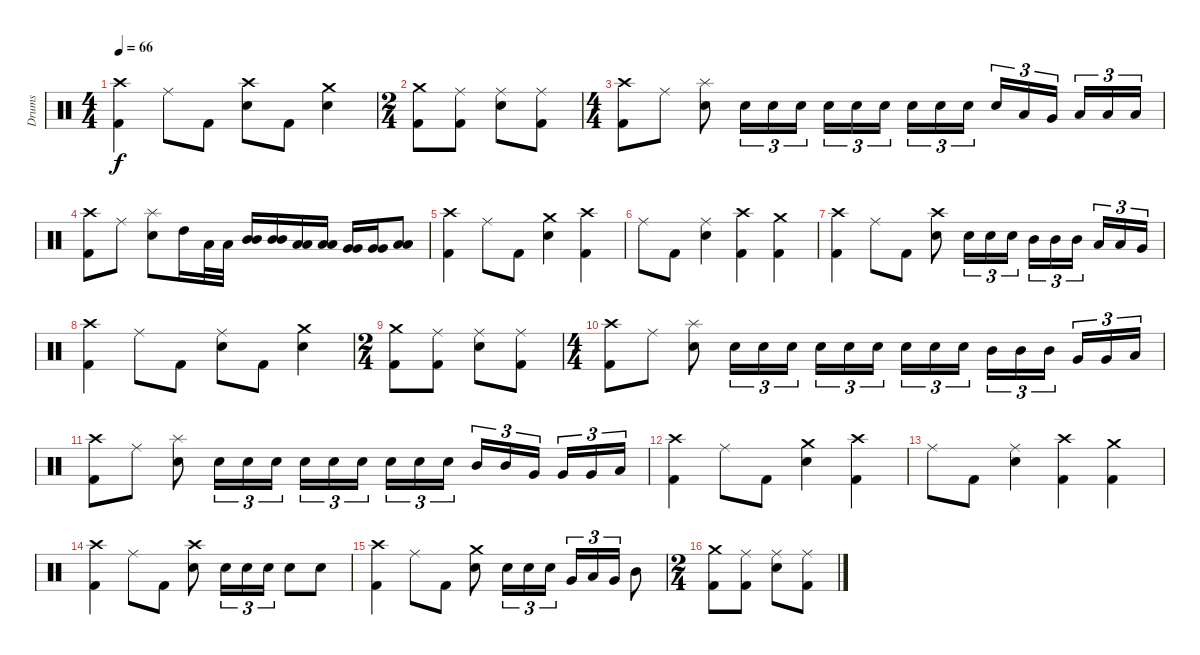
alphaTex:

\track ("Drums" "Drums") {instrument percussion}
\staff {score}
\articulation defaults
\ts (4 4)
\tempo 66
\clef neutral
\ks c
("Crash high (hit)" "Kick (hit) 2").4{dy f} "Ride (middle)".8 "Kick (hit) 2".8 ("Crash high (hit)" "Electric Snare (hit)").8 "Kick (hit) 2".8 ("Crash medium (hit)" "Electric Snare (hit)").4 |
\ts (2 4)
("Crash medium (hit)" "Kick (hit) 2").8 ("Ride (middle)" "Kick (hit) 2").8 ("Ride (middle)" "Electric Snare (hit)").8 ("Ride (middle)" "Kick (hit) 2").8 |
\ts (4 4)
("Crash high (hit)" "Kick (hit) 2").8 "Ride (middle)".8 ("Splash (hit)" "Electric Snare (hit)").8 "Electric Snare (hit)".16{tu (3 2)} "Electric Snare (hit)".16{tu (3 2)} "Electric Snare (hit)".16{tu (3 2)} "Electric Snare (hit)".16{tu (3 2)} "Electric Snare (hit)".16{tu (3 2)} "Electric Snare (hit)".16{tu (3 2) beam splitsecondary} "Electric Snare (hit)".16{tu (3 2)} "Electric Snare (hit)".16{tu (3 2)} "Electric Snare (hit)".16{tu (3 2)} "Electric Snare (hit)".16{tu (3 2)} "Low Tom (hit)".16{tu (3 2)} "Very Low Tom (hit)".16{tu (3 2) beam splitsecondary} "Low Floor Tom (hit)".16{tu (3 2)} "Low Floor Tom (hit)".16{tu (3 2)} "Low Floor Tom (hit)".16{tu (3 2)} |
("Crash high (hit)" "Kick (hit) 2").8 "Ride (middle)".8 ("Splash (hit)" "Electric Snare (hit)").8 "High Tom (hit)".16 "Low Tom (hit)".32 "Low Tom (hit)".32 ("Mid Tom (hit)" "Mid Tom (hit)").16 ("Mid Tom (hit)" "Mid Tom (hit)").16 ("Low Tom (hit)" "Low Tom (hit)").16 ("Low Tom (hit)" "Low Tom (hit)").16 ("Very Low Tom (hit)" "Very Low Tom (hit)").16 ("Very Low Tom (hit)" "Very Low Tom (hit)").16 ("Low Floor Tom (hit)" "Low Floor Tom (hit)").8 |
("Crash high (hit)" "Kick (hit) 2").4 "Ride (middle)".8 "Kick (hit) 2".8 ("Crash medium (hit)" "Electric Snare (hit)").4 ("Crash high (hit)" "Kick (hit) 2").4 |
"Ride (middle)".8 "Kick (hit) 2".8 ("Ride (middle)" "Electric Snare (hit)").4 ("Crash high (hit)" "Kick (hit) 2").4 ("Crash medium (hit)" "Kick (hit) 2").4 |
("Crash high (hit)" "Kick (hit) 2").4 "Ride (middle)".8 "Kick (hit) 2".8 ("Crash high (hit)" "Electric Snare (hit)").8 "Electric Snare (hit)".16{tu (3 2)} "Electric Snare (hit)".16{tu (3 2)} "Electric Snare (hit)".16{tu (3 2)} "Mid Tom (hit)".16{tu (3 2)} "Mid Tom (hit)".16{tu (3 2)} "Mid Tom (hit)".16{tu (3 2) beam splitsecondary} "Low Tom (hit)".16{tu (3 2)} "Low Tom (hit)".16{tu (3 2)} "Very Low Tom (hit)".16{tu (3 2)} |
("Crash high (hit)" "Kick (hit) 2").4 "Ride (middle)".8 "Kick (hit) 2".8 ("Ride (middle)" "Electric Snare (hit)").8 "Kick (hit) 2".8 ("Crash medium (hit)" "Electric Snare (hit)").4 |
\ts (2 4)
("Crash medium (hit)" "Kick (hit) 2").8 ("Ride (middle)" "Kick (hit) 2").8 ("Ride (middle)" "Electric Snare (hit)").8 ("Ride (middle)" "Kick (hit) 2").8 |
\ts (4 4)
("Crash high (hit)" "Kick (hit) 2").8 "Ride (middle)".8 ("Splash (hit)" "Electric Snare (hit)").8 "Electric Snare (hit)".16{tu (3 2)} "Electric Snare (hit)".16{tu (3 2)} "Electric Snare (hit)".16{tu (3 2)} "Electric Snare (hit)".16{tu (3 2)} "Electric Snare (hit)".16{tu (3 2)} "Electric Snare (hit)".16{tu (3 2) beam splitsecondary} "Electric Snare (hit)".16{tu (3 2)} "Electric Snare (hit)".16{tu (3 2)} "Electric Snare (hit)".16{tu (3 2)} "Mid Tom (hit)".16{tu (3 2)} "Mid Tom (hit)".16{tu (3 2)} "Mid Tom (hit)".16{tu (3 2) beam splitsecondary} "Very Low Tom (hit)".16{tu (3 2)} "Very Low Tom (hit)".16{tu (3 2)} "Low Floor Tom (hit)".16{tu (3 2)} |
("Crash high (hit)" "Kick (hit) 2").8 "Ride (middle)".8 ("Splash (hit)" "Electric Snare (hit)").8 "Electric Snare (hit)".16{tu (3 2)} "Electric Snare (hit)".16{tu (3 2)} "Electric Snare (hit)".16{tu (3 2)} "Electric Snare (hit)".16{tu (3 2)} "Electric Snare (hit)".16{tu (3 2)} "Electric Snare (hit)".16{tu (3 2) beam splitsecondary} "Electric Snare (hit)".16{tu (3 2)} "Electric Snare (hit)".16{tu (3 2)} "Electric Snare (hit)".16{tu (3 2)} "Mid Tom (hit)".16{tu (3 2)} "Mid Tom (hit)".16{tu (3 2)} "Very Low Tom (hit)".16{tu (3 2) beam splitsecondary} "Very Low Tom (hit)".16{tu (3 2)} "Very Low Tom (hit)".16{tu (3 2)} "Low Floor Tom (hit)".16{tu (3 2)} |
("Crash high (hit)" "Kick (hit) 2").4 "Ride (middle)".8 "Kick (hit) 2".8 ("Crash medium (hit)" "Electric Snare (hit)").4 ("Crash high (hit)" "Kick (hit) 2").4 |
"Ride (middle)".8 "Kick (hit) 2".8 ("Ride (middle)" "Electric Snare (hit)").4 ("Crash high (hit)" "Kick (hit) 2").4 ("Crash medium (hit)" "Kick (hit) 2").4 |
("Crash high (hit)" "Kick (hit) 2").4 "Ride (middle)".8 "Kick (hit) 2".8 ("Crash high (hit)" "Electric Snare (hit)").8 "Electric Snare (hit)".16{tu (3 2)} "Electric Snare (hit)".16{tu (3 2)} "Electric Snare (hit)".16{tu (3 2)} "Electric Snare (hit)".8 "Electric Snare (hit)".8 |
("Crash high (hit)" "Kick (hit) 2").4 "Ride (middle)".8 "Kick (hit) 2".8 ("Crash medium (hit)" "Electric Snare (hit)").8 "Electric Snare (hit)".16{tu (3 2)} "Electric Snare (hit)".16{tu (3 2)} "Electric Snare (hit)".16{tu (3 2)} "Very Low Tom (hit)".16{tu (3 2)} "Low Floor Tom (hit)".16{tu (3 2)} "Very Low Tom (hit)".16{tu (3 2)} "Mid Tom (hit)".8 |
\ts (2 4)
("Crash medium (hit)" "Kick (hit) 2").8 ("Ride (middle)" "Kick (hit) 2").8 ("Ride (middle)" "Electric Snare (hit)").8 ("Ride (middle)" "Kick (hit) 2").8
